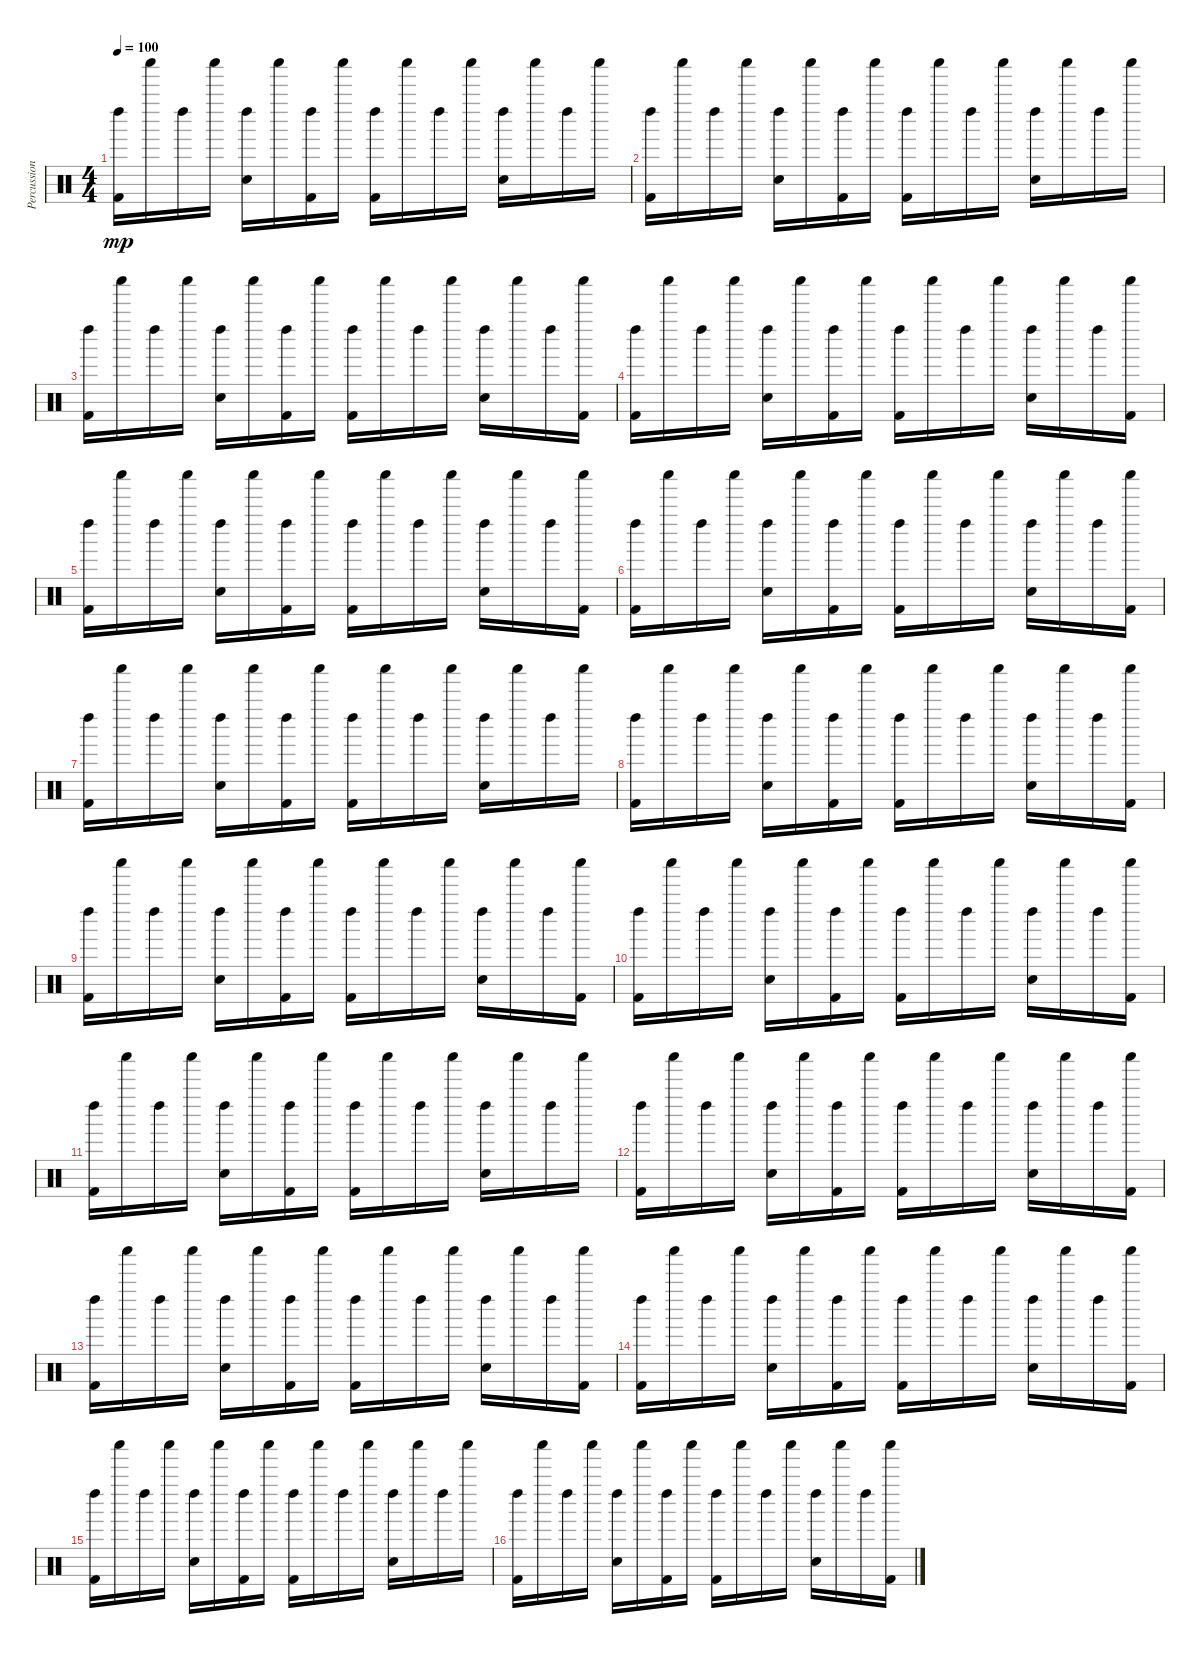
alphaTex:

\track ("Percussion" "Percussion") {instrument percussion}
\staff {score}
\articulation defaults
\ts (4 4)
\tempo 100
\clef neutral
\ks c
("Kick (hit) 2" "Left Maraca (hit)").16{dy mp} "Shaker (hit)".16 "Left Maraca (hit)".16 "Shaker (hit)".16 ("Snare (hit) 2" "Left Maraca (hit)").16 "Shaker (hit)".16 ("Kick (hit) 2" "Left Maraca (hit)").16 "Shaker (hit)".16 ("Kick (hit) 2" "Left Maraca (hit)").16 "Shaker (hit)".16 "Left Maraca (hit)".16 "Shaker (hit)".16 ("Snare (hit) 2" "Left Maraca (hit)").16 "Shaker (hit)".16 "Left Maraca (hit)".16 "Shaker (hit)".16 |
("Kick (hit) 2" "Left Maraca (hit)").16 "Shaker (hit)".16 "Left Maraca (hit)".16 "Shaker (hit)".16 ("Snare (hit) 2" "Left Maraca (hit)").16 "Shaker (hit)".16 ("Kick (hit) 2" "Left Maraca (hit)").16 "Shaker (hit)".16 ("Kick (hit) 2" "Left Maraca (hit)").16 "Shaker (hit)".16 "Left Maraca (hit)".16 "Shaker (hit)".16 ("Snare (hit) 2" "Left Maraca (hit)").16 "Shaker (hit)".16 "Left Maraca (hit)".16 "Shaker (hit)".16 |
("Kick (hit) 2" "Left Maraca (hit)").16 "Shaker (hit)".16 "Left Maraca (hit)".16 "Shaker (hit)".16 ("Snare (hit) 2" "Left Maraca (hit)").16 "Shaker (hit)".16 ("Kick (hit) 2" "Left Maraca (hit)").16 "Shaker (hit)".16 ("Kick (hit) 2" "Left Maraca (hit)").16 "Shaker (hit)".16 "Left Maraca (hit)".16 "Shaker (hit)".16 ("Snare (hit) 2" "Left Maraca (hit)").16 "Shaker (hit)".16 "Left Maraca (hit)".16 ("Kick (hit) 2" "Shaker (hit)").16 |
("Kick (hit) 2" "Left Maraca (hit)").16 "Shaker (hit)".16 "Left Maraca (hit)".16 "Shaker (hit)".16 ("Snare (hit) 2" "Left Maraca (hit)").16 "Shaker (hit)".16 ("Kick (hit) 2" "Left Maraca (hit)").16 "Shaker (hit)".16 ("Kick (hit) 2" "Left Maraca (hit)").16 "Shaker (hit)".16 "Left Maraca (hit)".16 "Shaker (hit)".16 ("Snare (hit) 2" "Left Maraca (hit)").16 "Shaker (hit)".16 "Left Maraca (hit)".16 ("Kick (hit) 2" "Shaker (hit)").16 |
("Kick (hit) 2" "Left Maraca (hit)").16 "Shaker (hit)".16 "Left Maraca (hit)".16 "Shaker (hit)".16 ("Snare (hit) 2" "Left Maraca (hit)").16 "Shaker (hit)".16 ("Kick (hit) 2" "Left Maraca (hit)").16 "Shaker (hit)".16 ("Kick (hit) 2" "Left Maraca (hit)").16 "Shaker (hit)".16 "Left Maraca (hit)".16 "Shaker (hit)".16 ("Snare (hit) 2" "Left Maraca (hit)").16 "Shaker (hit)".16 "Left Maraca (hit)".16 ("Kick (hit) 2" "Shaker (hit)").16 |
("Kick (hit) 2" "Left Maraca (hit)").16 "Shaker (hit)".16 "Left Maraca (hit)".16 "Shaker (hit)".16 ("Snare (hit) 2" "Left Maraca (hit)").16 "Shaker (hit)".16 ("Kick (hit) 2" "Left Maraca (hit)").16 "Shaker (hit)".16 ("Kick (hit) 2" "Left Maraca (hit)").16 "Shaker (hit)".16 "Left Maraca (hit)".16 "Shaker (hit)".16 ("Snare (hit) 2" "Left Maraca (hit)").16 "Shaker (hit)".16 "Left Maraca (hit)".16 ("Kick (hit) 2" "Shaker (hit)").16 |
("Kick (hit) 2" "Left Maraca (hit)").16 "Shaker (hit)".16 "Left Maraca (hit)".16 "Shaker (hit)".16 ("Snare (hit) 2" "Left Maraca (hit)").16 "Shaker (hit)".16 ("Kick (hit) 2" "Left Maraca (hit)").16 "Shaker (hit)".16 ("Kick (hit) 2" "Left Maraca (hit)").16 "Shaker (hit)".16 "Left Maraca (hit)".16 "Shaker (hit)".16 ("Snare (hit) 2" "Left Maraca (hit)").16 "Shaker (hit)".16 "Left Maraca (hit)".16 "Shaker (hit)".16 |
("Kick (hit) 2" "Left Maraca (hit)").16 "Shaker (hit)".16 "Left Maraca (hit)".16 "Shaker (hit)".16 ("Snare (hit) 2" "Left Maraca (hit)").16 "Shaker (hit)".16 ("Kick (hit) 2" "Left Maraca (hit)").16 "Shaker (hit)".16 ("Kick (hit) 2" "Left Maraca (hit)").16 "Shaker (hit)".16 "Left Maraca (hit)".16 "Shaker (hit)".16 ("Snare (hit) 2" "Left Maraca (hit)").16 "Shaker (hit)".16 "Left Maraca (hit)".16 ("Kick (hit) 2" "Shaker (hit)").16 |
("Kick (hit) 2" "Left Maraca (hit)").16 "Shaker (hit)".16 "Left Maraca (hit)".16 "Shaker (hit)".16 ("Snare (hit) 2" "Left Maraca (hit)").16 "Shaker (hit)".16 ("Kick (hit) 2" "Left Maraca (hit)").16 "Shaker (hit)".16 ("Kick (hit) 2" "Left Maraca (hit)").16 "Shaker (hit)".16 "Left Maraca (hit)".16 "Shaker (hit)".16 ("Snare (hit) 2" "Left Maraca (hit)").16 "Shaker (hit)".16 "Left Maraca (hit)".16 ("Kick (hit) 2" "Shaker (hit)").16 |
("Kick (hit) 2" "Left Maraca (hit)").16 "Shaker (hit)".16 "Left Maraca (hit)".16 "Shaker (hit)".16 ("Snare (hit) 2" "Left Maraca (hit)").16 "Shaker (hit)".16 ("Kick (hit) 2" "Left Maraca (hit)").16 "Shaker (hit)".16 ("Kick (hit) 2" "Left Maraca (hit)").16 "Shaker (hit)".16 "Left Maraca (hit)".16 "Shaker (hit)".16 ("Snare (hit) 2" "Left Maraca (hit)").16 "Shaker (hit)".16 "Left Maraca (hit)".16 ("Kick (hit) 2" "Shaker (hit)").16 |
("Kick (hit) 2" "Left Maraca (hit)").16 "Shaker (hit)".16 "Left Maraca (hit)".16 "Shaker (hit)".16 ("Snare (hit) 2" "Left Maraca (hit)").16 "Shaker (hit)".16 ("Kick (hit) 2" "Left Maraca (hit)").16 "Shaker (hit)".16 ("Kick (hit) 2" "Left Maraca (hit)").16 "Shaker (hit)".16 "Left Maraca (hit)".16 "Shaker (hit)".16 ("Snare (hit) 2" "Left Maraca (hit)").16 "Shaker (hit)".16 "Left Maraca (hit)".16 "Shaker (hit)".16 |
("Kick (hit) 2" "Left Maraca (hit)").16 "Shaker (hit)".16 "Left Maraca (hit)".16 "Shaker (hit)".16 ("Snare (hit) 2" "Left Maraca (hit)").16 "Shaker (hit)".16 ("Kick (hit) 2" "Left Maraca (hit)").16 "Shaker (hit)".16 ("Kick (hit) 2" "Left Maraca (hit)").16 "Shaker (hit)".16 "Left Maraca (hit)".16 "Shaker (hit)".16 ("Snare (hit) 2" "Left Maraca (hit)").16 "Shaker (hit)".16 "Left Maraca (hit)".16 ("Kick (hit) 2" "Shaker (hit)").16 |
("Kick (hit) 2" "Left Maraca (hit)").16 "Shaker (hit)".16 "Left Maraca (hit)".16 "Shaker (hit)".16 ("Snare (hit) 2" "Left Maraca (hit)").16 "Shaker (hit)".16 ("Kick (hit) 2" "Left Maraca (hit)").16 "Shaker (hit)".16 ("Kick (hit) 2" "Left Maraca (hit)").16 "Shaker (hit)".16 "Left Maraca (hit)".16 "Shaker (hit)".16 ("Snare (hit) 2" "Left Maraca (hit)").16 "Shaker (hit)".16 "Left Maraca (hit)".16 ("Kick (hit) 2" "Shaker (hit)").16 |
("Kick (hit) 2" "Left Maraca (hit)").16 "Shaker (hit)".16 "Left Maraca (hit)".16 "Shaker (hit)".16 ("Snare (hit) 2" "Left Maraca (hit)").16 "Shaker (hit)".16 ("Kick (hit) 2" "Left Maraca (hit)").16 "Shaker (hit)".16 ("Kick (hit) 2" "Left Maraca (hit)").16 "Shaker (hit)".16 "Left Maraca (hit)".16 "Shaker (hit)".16 ("Snare (hit) 2" "Left Maraca (hit)").16 "Shaker (hit)".16 "Left Maraca (hit)".16 ("Kick (hit) 2" "Shaker (hit)").16 |
("Kick (hit) 2" "Left Maraca (hit)").16 "Shaker (hit)".16 "Left Maraca (hit)".16 "Shaker (hit)".16 ("Snare (hit) 2" "Left Maraca (hit)").16 "Shaker (hit)".16 ("Kick (hit) 2" "Left Maraca (hit)").16 "Shaker (hit)".16 ("Kick (hit) 2" "Left Maraca (hit)").16 "Shaker (hit)".16 "Left Maraca (hit)".16 "Shaker (hit)".16 ("Snare (hit) 2" "Left Maraca (hit)").16 "Shaker (hit)".16 "Left Maraca (hit)".16 "Shaker (hit)".16 |
("Kick (hit) 2" "Left Maraca (hit)").16 "Shaker (hit)".16 "Left Maraca (hit)".16 "Shaker (hit)".16 ("Snare (hit) 2" "Left Maraca (hit)").16 "Shaker (hit)".16 ("Kick (hit) 2" "Left Maraca (hit)").16 "Shaker (hit)".16 ("Kick (hit) 2" "Left Maraca (hit)").16 "Shaker (hit)".16 "Left Maraca (hit)".16 "Shaker (hit)".16 ("Snare (hit) 2" "Left Maraca (hit)").16 "Shaker (hit)".16 "Left Maraca (hit)".16 ("Kick (hit) 2" "Shaker (hit)").16
